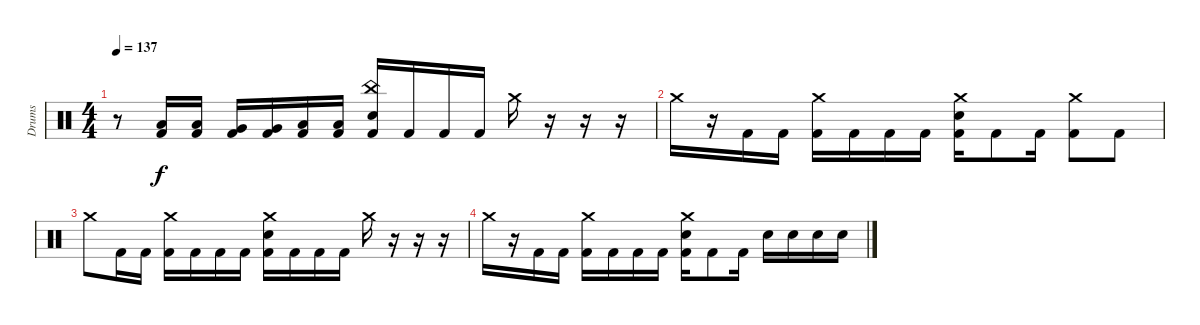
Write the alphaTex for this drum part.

\track ("Drums" "Drums") {instrument percussion}
\staff {score}
\articulation defaults
\ts (4 4)
\tempo 137
\clef neutral
\ks c
r.8{dy f} ("Low Tom (hit)" "Kick (hit) 2").16 ("Low Tom (hit)" "Kick (hit) 2").16 ("Very Low Tom (hit)" "Kick (hit) 2").16 ("Very Low Tom (hit)" "Kick (hit) 2").16 ("Low Floor Tom (hit)" "Kick (hit) 2").16 ("Low Floor Tom (hit)" "Kick (hit) 2").16 ("China (hit)" "Electric Snare (hit)" "Kick (hit) 2").16 "Kick (hit) 2".16 "Kick (hit) 2".16 "Kick (hit) 2".16 "Crash medium (hit)".16 r.16 r.16 r.16 |
"Crash medium (hit)".16 r.16 "Kick (hit) 2".16 "Kick (hit) 2".16 ("Crash medium (hit)" "Kick (hit) 2").16 "Kick (hit) 2".16 "Kick (hit) 2".16 "Kick (hit) 2".16 ("Crash medium (hit)" "Electric Snare (hit)" "Kick (hit) 2").16 "Kick (hit) 2".8 "Kick (hit) 2".16 ("Crash medium (hit)" "Kick (hit) 2").8 "Kick (hit) 2".8 |
"Crash medium (hit)".8 "Kick (hit) 2".16 "Kick (hit) 2".16 ("Crash medium (hit)" "Kick (hit) 2").16 "Kick (hit) 2".16 "Kick (hit) 2".16 "Kick (hit) 2".16 ("Crash medium (hit)" "Electric Snare (hit)" "Kick (hit) 2").16 "Kick (hit) 2".16 "Kick (hit) 2".16 "Kick (hit) 2".16 "Crash medium (hit)".16 r.16 r.16 r.16 |
"Crash medium (hit)".16 r.16 "Kick (hit) 2".16 "Kick (hit) 2".16 ("Crash medium (hit)" "Kick (hit) 2").16 "Kick (hit) 2".16 "Kick (hit) 2".16 "Kick (hit) 2".16 ("Crash medium (hit)" "Electric Snare (hit)" "Kick (hit) 2").16 "Kick (hit) 2".8 "Kick (hit) 2".16 "Electric Snare (hit)".16 "Electric Snare (hit)".16 "Electric Snare (hit)".16 "Electric Snare (hit)".16
